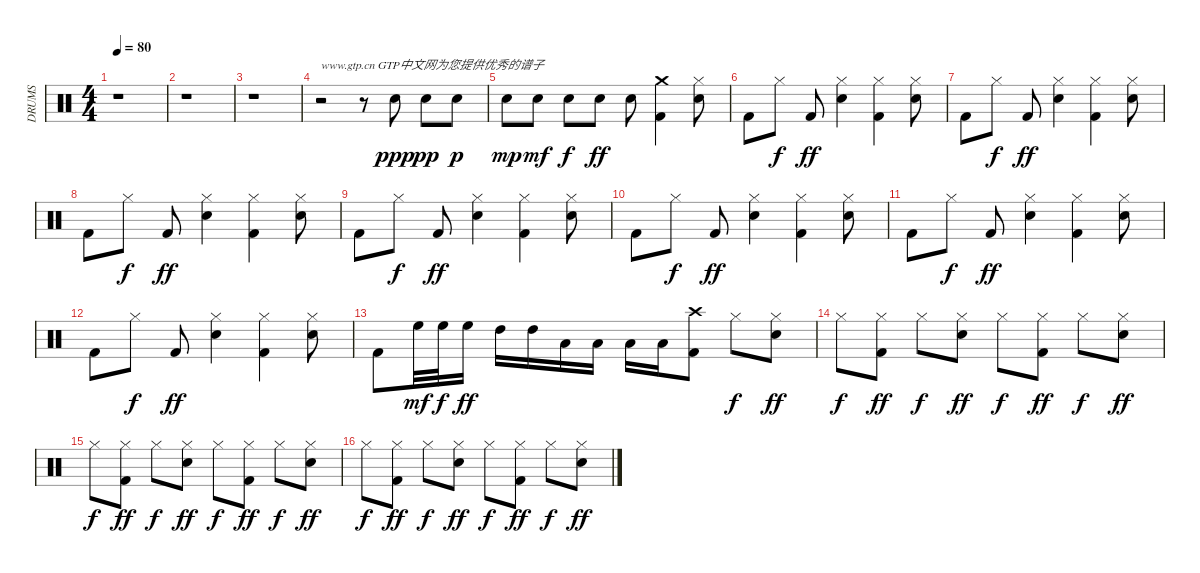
\track ("DRUMS                               " "DRUMS     ") {instrument percussion}
\staff {score}
\articulation defaults
\ts (4 4)
\tempo 80
\clef neutral
\ks c
r.1{dy ppp} |
r.1 |
r.1 |
r.2{txt "www.gtp.cn GTP中文网为您提供优秀的谱子"} r.8 "Snare (hit) 2".8 "Snare (hit) 2".8{dy pp} "Snare (hit) 2".8{dy p} |
"Snare (hit) 2".8{dy mp} "Snare (hit) 2".8{dy mf} "Snare (hit) 2".8{dy f} "Snare (hit) 2".8{dy ff} "Snare (hit) 2".8 ("Crash medium (hit)" "Kick (hit) 2").4 ("Snare (hit) 2" "Hi-Hat (closed)").8 |
"Kick (hit) 2".8 "Hi-Hat (closed)".8{dy f} "Kick (hit) 2".8{dy ff} ("Snare (hit) 2" "Hi-Hat (closed)").4 ("Kick (hit) 2" "Hi-Hat (closed)").4 ("Snare (hit) 2" "Hi-Hat (closed)").8 |
"Kick (hit) 2".8 "Hi-Hat (closed)".8{dy f} "Kick (hit) 2".8{dy ff} ("Snare (hit) 2" "Hi-Hat (closed)").4 ("Kick (hit) 2" "Hi-Hat (closed)").4 ("Snare (hit) 2" "Hi-Hat (closed)").8 |
"Kick (hit) 2".8 "Hi-Hat (closed)".8{dy f} "Kick (hit) 2".8{dy ff} ("Snare (hit) 2" "Hi-Hat (closed)").4 ("Kick (hit) 2" "Hi-Hat (closed)").4 ("Snare (hit) 2" "Hi-Hat (closed)").8 |
"Kick (hit) 2".8 "Hi-Hat (closed)".8{dy f} "Kick (hit) 2".8{dy ff} ("Snare (hit) 2" "Hi-Hat (closed)").4 ("Kick (hit) 2" "Hi-Hat (closed)").4 ("Snare (hit) 2" "Hi-Hat (closed)").8 |
"Kick (hit) 2".8 "Hi-Hat (closed)".8{dy f} "Kick (hit) 2".8{dy ff} ("Snare (hit) 2" "Hi-Hat (closed)").4 ("Kick (hit) 2" "Hi-Hat (closed)").4 ("Snare (hit) 2" "Hi-Hat (closed)").8 |
"Kick (hit) 2".8 "Hi-Hat (closed)".8{dy f} "Kick (hit) 2".8{dy ff} ("Snare (hit) 2" "Hi-Hat (closed)").4 ("Kick (hit) 2" "Hi-Hat (closed)").4 ("Snare (hit) 2" "Hi-Hat (closed)").8 |
"Kick (hit) 2".8 "Hi-Hat (closed)".8{dy f} "Kick (hit) 2".8{dy ff} ("Snare (hit) 2" "Hi-Hat (closed)").4 ("Kick (hit) 2" "Hi-Hat (closed)").4 ("Snare (hit) 2" "Hi-Hat (closed)").8 |
"Kick (hit) 2".8 "High Floor Tom (hit)".32{dy mf} "High Floor Tom (hit)".32{dy f} "High Floor Tom (hit)".16{dy ff} "High Tom (hit)".16 "High Tom (hit)".16 "Low Tom (hit)".16 "Low Tom (hit)".16 "Low Floor Tom (hit)".16 "Low Floor Tom (hit)".16 ("Kick (hit) 2" "Crash high (hit)").8 "Hi-Hat (closed)".8{dy f} ("Snare (hit) 2" "Hi-Hat (closed)").8{dy ff} |
"Hi-Hat (closed)".8{dy f} ("Kick (hit) 2" "Hi-Hat (closed)").8{dy ff} "Hi-Hat (closed)".8{dy f} ("Snare (hit) 2" "Hi-Hat (closed)").8{dy ff} "Hi-Hat (closed)".8{dy f} ("Kick (hit) 2" "Hi-Hat (closed)").8{dy ff} "Hi-Hat (closed)".8{dy f} ("Snare (hit) 2" "Hi-Hat (closed)").8{dy ff} |
"Hi-Hat (closed)".8{dy f} ("Kick (hit) 2" "Hi-Hat (closed)").8{dy ff} "Hi-Hat (closed)".8{dy f} ("Snare (hit) 2" "Hi-Hat (closed)").8{dy ff} "Hi-Hat (closed)".8{dy f} ("Kick (hit) 2" "Hi-Hat (closed)").8{dy ff} "Hi-Hat (closed)".8{dy f} ("Snare (hit) 2" "Hi-Hat (closed)").8{dy ff} |
"Hi-Hat (closed)".8{dy f} ("Kick (hit) 2" "Hi-Hat (closed)").8{dy ff} "Hi-Hat (closed)".8{dy f} ("Snare (hit) 2" "Hi-Hat (closed)").8{dy ff} "Hi-Hat (closed)".8{dy f} ("Kick (hit) 2" "Hi-Hat (closed)").8{dy ff} "Hi-Hat (closed)".8{dy f} ("Snare (hit) 2" "Hi-Hat (closed)").8{dy ff}
